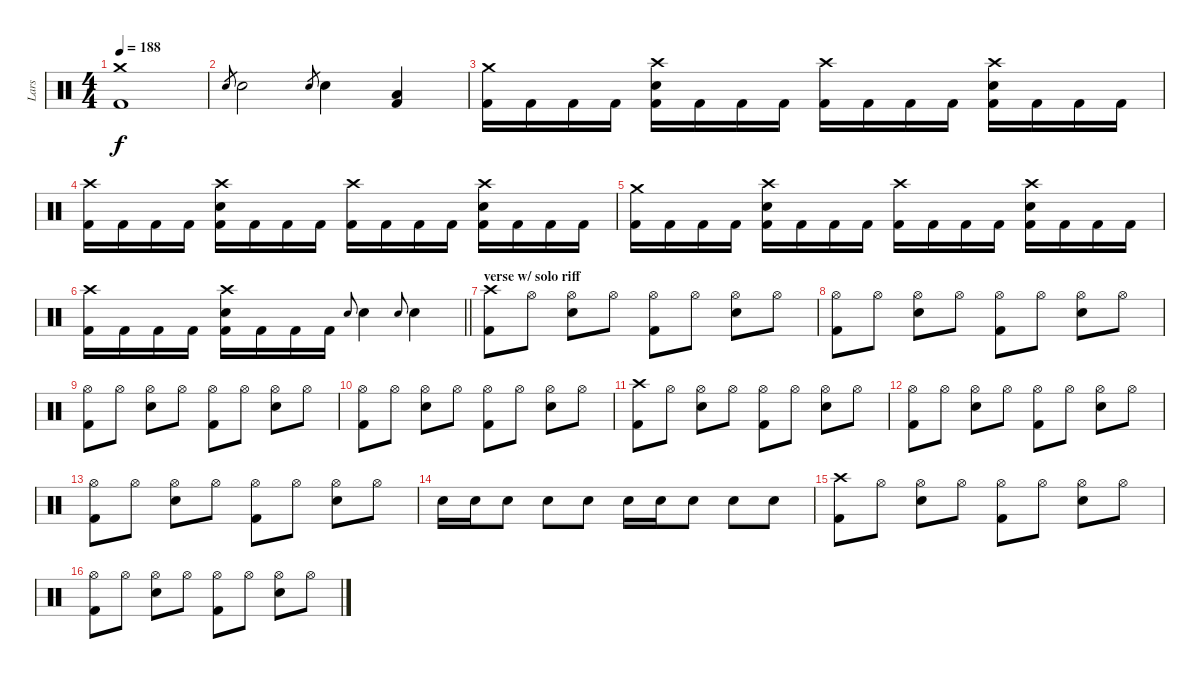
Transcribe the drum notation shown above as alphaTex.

\track ("Lars" "Lars") {instrument percussion}
\staff {score}
\articulation defaults
\ts (4 4)
\tempo 188
\clef neutral
\ks c
("Crash medium (hit)" "Kick (hit) 2").1{dy f} |
"Snare (hit) 2".8{gr} "Snare (hit) 2".2 "Snare (hit) 2".8{gr} "Snare (hit) 2".4 ("Low Tom (hit)" "Kick (hit) 2").4 |
("Crash medium (hit)" "Kick (hit) 2").16 "Kick (hit) 2".16 "Kick (hit) 2".16 "Kick (hit) 2".16 ("Crash high (hit)" "Snare (hit) 2" "Kick (hit) 2").16 "Kick (hit) 2".16 "Kick (hit) 2".16 "Kick (hit) 2".16 ("Crash high (hit)" "Kick (hit) 2").16 "Kick (hit) 2".16 "Kick (hit) 2".16 "Kick (hit) 2".16 ("Crash high (hit)" "Snare (hit) 2" "Kick (hit) 2").16 "Kick (hit) 2".16 "Kick (hit) 2".16 "Kick (hit) 2".16 |
("Crash high (hit)" "Kick (hit) 2").16 "Kick (hit) 2".16 "Kick (hit) 2".16 "Kick (hit) 2".16 ("Crash high (hit)" "Snare (hit) 2" "Kick (hit) 2").16 "Kick (hit) 2".16 "Kick (hit) 2".16 "Kick (hit) 2".16 ("Crash high (hit)" "Kick (hit) 2").16 "Kick (hit) 2".16 "Kick (hit) 2".16 "Kick (hit) 2".16 ("Crash high (hit)" "Snare (hit) 2" "Kick (hit) 2").16 "Kick (hit) 2".16 "Kick (hit) 2".16 "Kick (hit) 2".16 |
("Crash medium (hit)" "Kick (hit) 2").16 "Kick (hit) 2".16 "Kick (hit) 2".16 "Kick (hit) 2".16 ("Crash high (hit)" "Snare (hit) 2" "Kick (hit) 2").16 "Kick (hit) 2".16 "Kick (hit) 2".16 "Kick (hit) 2".16 ("Crash high (hit)" "Kick (hit) 2").16 "Kick (hit) 2".16 "Kick (hit) 2".16 "Kick (hit) 2".16 ("Crash high (hit)" "Snare (hit) 2" "Kick (hit) 2").16 "Kick (hit) 2".16 "Kick (hit) 2".16 "Kick (hit) 2".16 |
\barLineRight lightlight
("Crash high (hit)" "Kick (hit) 2").16 "Kick (hit) 2".16 "Kick (hit) 2".16 "Kick (hit) 2".16 ("Crash high (hit)" "Snare (hit) 2" "Kick (hit) 2").16 "Kick (hit) 2".16 "Kick (hit) 2".16 "Kick (hit) 2".16 "Snare (hit) 2".8{gr onbeat} "Snare (hit) 2".4 "Snare (hit) 2".8{gr onbeat} "Snare (hit) 2".4 |
\section ("" "verse w/ solo riff")
("Crash high (hit)" "Kick (hit) 2").8 "Hi-Hat (open)".8 ("Hi-Hat (open)" "Snare (hit) 2").8 "Hi-Hat (open)".8 ("Hi-Hat (open)" "Kick (hit) 2").8 "Hi-Hat (open)".8 ("Hi-Hat (open)" "Snare (hit) 2").8 "Hi-Hat (open)".8 |
("Hi-Hat (open)" "Kick (hit) 2").8 "Hi-Hat (open)".8 ("Hi-Hat (open)" "Snare (hit) 2").8 "Hi-Hat (open)".8 ("Hi-Hat (open)" "Kick (hit) 2").8 "Hi-Hat (open)".8 ("Hi-Hat (open)" "Snare (hit) 2").8 "Hi-Hat (open)".8 |
("Hi-Hat (open)" "Kick (hit) 2").8 "Hi-Hat (open)".8 ("Hi-Hat (open)" "Snare (hit) 2").8 "Hi-Hat (open)".8 ("Hi-Hat (open)" "Kick (hit) 2").8 "Hi-Hat (open)".8 ("Hi-Hat (open)" "Snare (hit) 2").8 "Hi-Hat (open)".8 |
("Hi-Hat (open)" "Kick (hit) 2").8 "Hi-Hat (open)".8 ("Hi-Hat (open)" "Snare (hit) 2").8 "Hi-Hat (open)".8 ("Hi-Hat (open)" "Kick (hit) 2").8 "Hi-Hat (open)".8 ("Hi-Hat (open)" "Snare (hit) 2").8 "Hi-Hat (open)".8 |
("Crash high (hit)" "Kick (hit) 2").8 "Hi-Hat (open)".8 ("Hi-Hat (open)" "Snare (hit) 2").8 "Hi-Hat (open)".8 ("Hi-Hat (open)" "Kick (hit) 2").8 "Hi-Hat (open)".8 ("Hi-Hat (open)" "Snare (hit) 2").8 "Hi-Hat (open)".8 |
("Hi-Hat (open)" "Kick (hit) 2").8 "Hi-Hat (open)".8 ("Hi-Hat (open)" "Snare (hit) 2").8 "Hi-Hat (open)".8 ("Hi-Hat (open)" "Kick (hit) 2").8 "Hi-Hat (open)".8 ("Hi-Hat (open)" "Snare (hit) 2").8 "Hi-Hat (open)".8 |
("Hi-Hat (open)" "Kick (hit) 2").8 "Hi-Hat (open)".8 ("Hi-Hat (open)" "Snare (hit) 2").8 "Hi-Hat (open)".8 ("Hi-Hat (open)" "Kick (hit) 2").8 "Hi-Hat (open)".8 ("Hi-Hat (open)" "Snare (hit) 2").8 "Hi-Hat (open)".8 |
"Snare (hit) 2".16 "Snare (hit) 2".16 "Snare (hit) 2".8 "Snare (hit) 2".8 "Snare (hit) 2".8 "Snare (hit) 2".16 "Snare (hit) 2".16 "Snare (hit) 2".8 "Snare (hit) 2".8 "Snare (hit) 2".8 |
("Crash high (hit)" "Kick (hit) 2").8 "Hi-Hat (open)".8 ("Hi-Hat (open)" "Snare (hit) 2").8 "Hi-Hat (open)".8 ("Hi-Hat (open)" "Kick (hit) 2").8 "Hi-Hat (open)".8 ("Hi-Hat (open)" "Snare (hit) 2").8 "Hi-Hat (open)".8 |
("Hi-Hat (open)" "Kick (hit) 2").8 "Hi-Hat (open)".8 ("Hi-Hat (open)" "Snare (hit) 2").8 "Hi-Hat (open)".8 ("Hi-Hat (open)" "Kick (hit) 2").8 "Hi-Hat (open)".8 ("Hi-Hat (open)" "Snare (hit) 2").8 "Hi-Hat (open)".8
